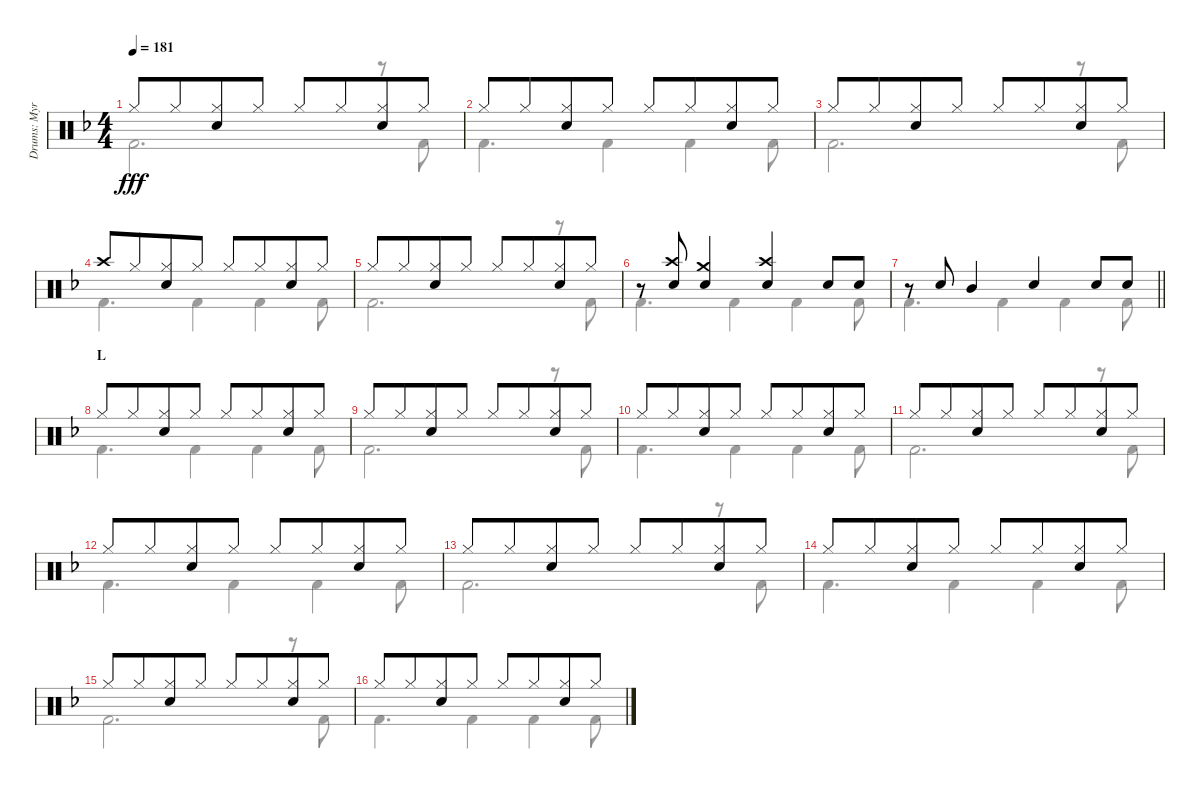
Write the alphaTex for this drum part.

\track ("Drums: Myron" "Drums: Myr") {instrument percussion}
\staff {score}
\articulation defaults
\voice
\ts (4 4)
\tempo 181
\clef neutral
\ks f "Hi-Hat (closed)".8{dy fff} "Hi-Hat (closed)".8{beam merge}
("Hi-Hat (closed)" "Electric Snare (hit)").8 "Hi-Hat (closed)".8 "Hi-Hat (closed)".8 "Hi-Hat (closed)".8{beam merge} ("Hi-Hat (closed)" "Electric Snare (hit)").8 "Hi-Hat (closed)".8 |
"Hi-Hat (closed)".8 "Hi-Hat (closed)".8{beam merge} ("Hi-Hat (closed)" "Electric Snare (hit)").8 "Hi-Hat (closed)".8 "Hi-Hat (closed)".8 "Hi-Hat (closed)".8{beam merge} ("Hi-Hat (closed)" "Electric Snare (hit)").8 "Hi-Hat (closed)".8 |
"Hi-Hat (closed)".8 "Hi-Hat (closed)".8{beam merge} ("Hi-Hat (closed)" "Electric Snare (hit)").8 "Hi-Hat (closed)".8 "Hi-Hat (closed)".8 "Hi-Hat (closed)".8{beam merge} ("Hi-Hat (closed)" "Electric Snare (hit)").8 "Hi-Hat (closed)".8 |
"Crash high (hit)".8 "Hi-Hat (closed)".8{beam merge} ("Hi-Hat (closed)" "Electric Snare (hit)").8 "Hi-Hat (closed)".8 "Hi-Hat (closed)".8 "Hi-Hat (closed)".8{beam merge} ("Hi-Hat (closed)" "Electric Snare (hit)").8 "Hi-Hat (closed)".8 |
"Hi-Hat (closed)".8 "Hi-Hat (closed)".8{beam merge} ("Hi-Hat (closed)" "Electric Snare (hit)").8 "Hi-Hat (closed)".8 "Hi-Hat (closed)".8 "Hi-Hat (closed)".8{beam merge} ("Hi-Hat (closed)" "Electric Snare (hit)").8 "Hi-Hat (closed)".8 |
r.8 ("Crash high (hit)" "Electric Snare (hit)").8 ("Crash medium (hit)" "Electric Snare (hit)").4 ("Crash high (hit)" "Electric Snare (hit)").4 "Electric Snare (hit)".8 "Electric Snare (hit)".8 |
\barLineRight lightlight
r.8 "Electric Snare (hit)".8 "Mid Tom (hit)".4 "Snare (hit) 2".4 "Electric Snare (hit)".8 "Electric Snare (hit)".8 |
\section ("" "L")
"Hi-Hat (closed)".8 "Hi-Hat (closed)".8{beam merge} ("Hi-Hat (closed)" "Electric Snare (hit)").8 "Hi-Hat (closed)".8 "Hi-Hat (closed)".8 "Hi-Hat (closed)".8{beam merge} ("Hi-Hat (closed)" "Electric Snare (hit)").8 "Hi-Hat (closed)".8 |
"Hi-Hat (closed)".8 "Hi-Hat (closed)".8{beam merge} ("Hi-Hat (closed)" "Electric Snare (hit)").8 "Hi-Hat (closed)".8 "Hi-Hat (closed)".8 "Hi-Hat (closed)".8{beam merge} ("Hi-Hat (closed)" "Electric Snare (hit)").8 "Hi-Hat (closed)".8 |
"Hi-Hat (closed)".8 "Hi-Hat (closed)".8{beam merge} ("Hi-Hat (closed)" "Electric Snare (hit)").8 "Hi-Hat (closed)".8 "Hi-Hat (closed)".8 "Hi-Hat (closed)".8{beam merge} ("Hi-Hat (closed)" "Electric Snare (hit)").8 "Hi-Hat (closed)".8 |
"Hi-Hat (closed)".8 "Hi-Hat (closed)".8{beam merge} ("Hi-Hat (closed)" "Electric Snare (hit)").8 "Hi-Hat (closed)".8 "Hi-Hat (closed)".8 "Hi-Hat (closed)".8{beam merge} ("Hi-Hat (closed)" "Electric Snare (hit)").8 "Hi-Hat (closed)".8 |
"Hi-Hat (closed)".8 "Hi-Hat (closed)".8{beam merge} ("Hi-Hat (closed)" "Electric Snare (hit)").8 "Hi-Hat (closed)".8 "Hi-Hat (closed)".8 "Hi-Hat (closed)".8{beam merge} ("Hi-Hat (closed)" "Electric Snare (hit)").8 "Hi-Hat (closed)".8 |
"Hi-Hat (closed)".8 "Hi-Hat (closed)".8{beam merge} ("Hi-Hat (closed)" "Electric Snare (hit)").8 "Hi-Hat (closed)".8 "Hi-Hat (closed)".8 "Hi-Hat (closed)".8{beam merge} ("Hi-Hat (closed)" "Electric Snare (hit)").8 "Hi-Hat (closed)".8 |
"Hi-Hat (closed)".8 "Hi-Hat (closed)".8{beam merge} ("Hi-Hat (closed)" "Electric Snare (hit)").8 "Hi-Hat (closed)".8 "Hi-Hat (closed)".8 "Hi-Hat (closed)".8{beam merge} ("Hi-Hat (closed)" "Electric Snare (hit)").8 "Hi-Hat (closed)".8 |
"Hi-Hat (closed)".8 "Hi-Hat (closed)".8{beam merge} ("Hi-Hat (closed)" "Electric Snare (hit)").8 "Hi-Hat (closed)".8 "Hi-Hat (closed)".8 "Hi-Hat (closed)".8{beam merge} ("Hi-Hat (closed)" "Electric Snare (hit)").8 "Hi-Hat (closed)".8 |
"Hi-Hat (closed)".8 "Hi-Hat (closed)".8{beam merge} ("Hi-Hat (closed)" "Electric Snare (hit)").8 "Hi-Hat (closed)".8 "Hi-Hat (closed)".8 "Hi-Hat (closed)".8{beam merge} ("Hi-Hat (closed)" "Electric Snare (hit)").8 "Hi-Hat (closed)".8
\voice
\clef neutral
\ottava regular
\simile none
\ks f "Kick (hit) 2".2{d dy fff}
r.8 "Kick (hit) 2".8 |
"Kick (hit) 2".4{d} "Kick (hit) 2".4 "Kick (hit) 2".4 "Kick (hit) 2".8 |
"Kick (hit) 2".2{d} r.8 "Kick (hit) 2".8 |
"Kick (hit) 2".4{d} "Kick (hit) 2".4 "Kick (hit) 2".4 "Kick (hit) 2".8 |
"Kick (hit) 2".2{d} r.8 "Kick (hit) 2".8 |
"Kick (hit) 2".4{d} "Kick (hit) 2".4 "Kick (hit) 2".4 "Kick (hit) 2".8 |
\barLineRight lightlight "Kick (hit) 2".4{d} "Kick (hit) 2".4 "Kick (hit) 2".4 "Kick (hit) 2".8
|
"Kick (hit) 2".4{d} "Kick (hit) 2".4 "Kick (hit) 2".4 "Kick (hit) 2".8 |
"Kick (hit) 2".2{d} r.8 "Kick (hit) 2".8 |
"Kick (hit) 2".4{d} "Kick (hit) 2".4 "Kick (hit) 2".4 "Kick (hit) 2".8 |
"Kick (hit) 2".2{d} r.8 "Kick (hit) 2".8 |
"Kick (hit) 2".4{d} "Kick (hit) 2".4 "Kick (hit) 2".4 "Kick (hit) 2".8 |
"Kick (hit) 2".2{d} r.8 "Kick (hit) 2".8 |
"Kick (hit) 2".4{d} "Kick (hit) 2".4 "Kick (hit) 2".4 "Kick (hit) 2".8 |
"Kick (hit) 2".2{d} r.8 "Kick (hit) 2".8 |
"Kick (hit) 2".4{d} "Kick (hit) 2".4 "Kick (hit) 2".4 "Kick (hit) 2".8
